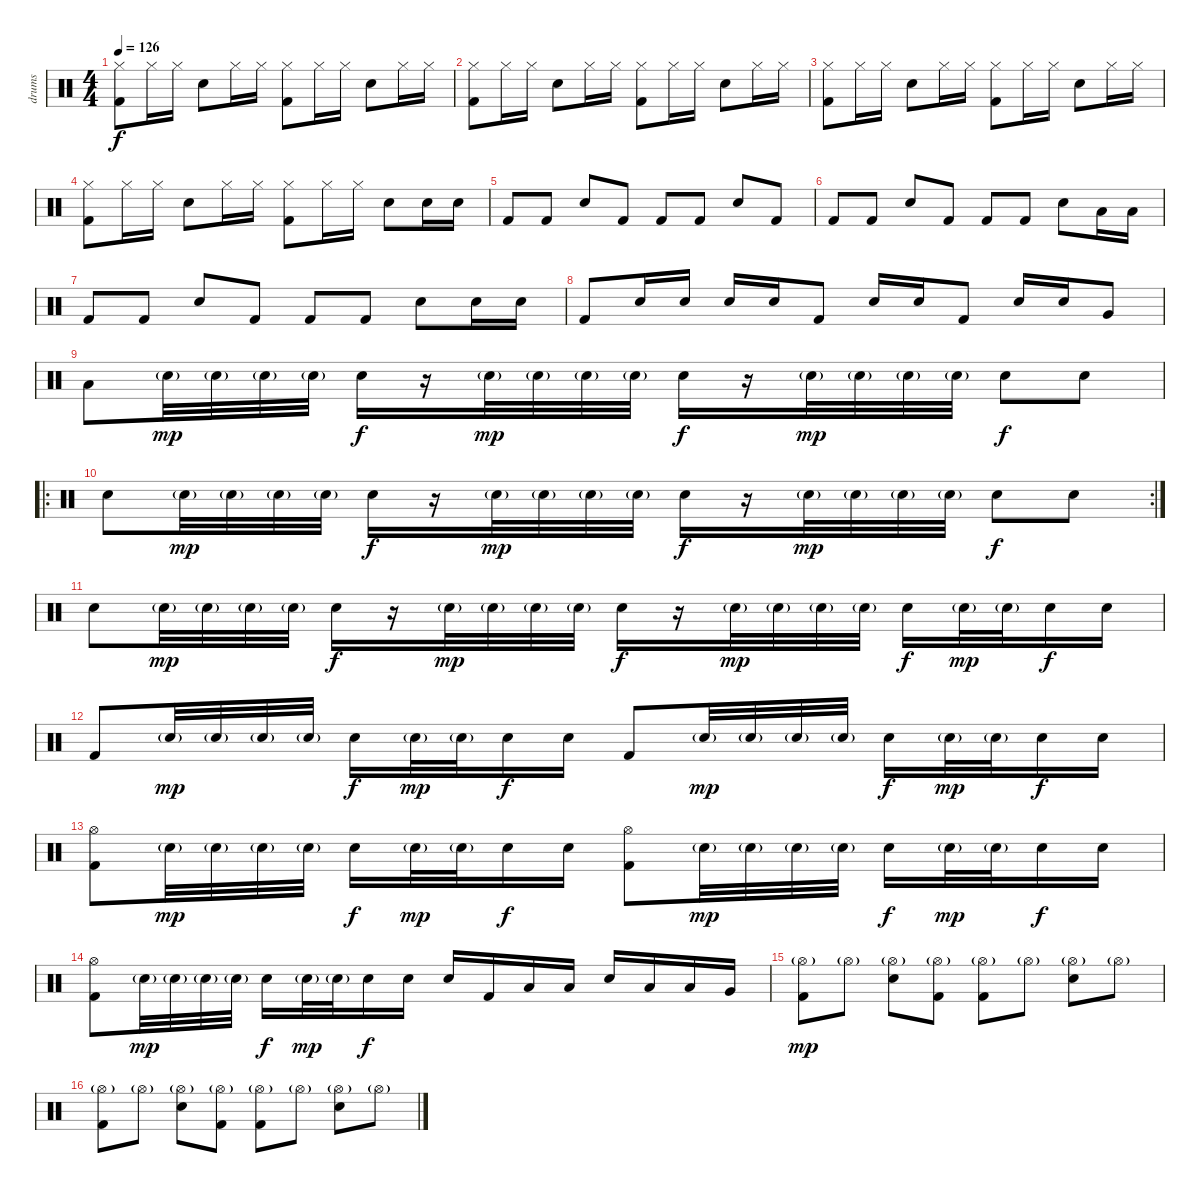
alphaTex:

\track ("drums" "drums") {instrument percussion}
\staff {score}
\articulation defaults
\ts (4 4)
\tempo 126
\clef neutral
\ks c
("Hi-Hat (closed)" "Kick (hit) 2").8{dy f} "Hi-Hat (closed)".16 "Hi-Hat (closed)".16 "Snare (hit) 2".8 "Hi-Hat (closed)".16 "Hi-Hat (closed)".16 ("Hi-Hat (closed)" "Kick (hit) 2").8 "Hi-Hat (closed)".16 "Hi-Hat (closed)".16 "Snare (hit) 2".8 "Hi-Hat (closed)".16 "Hi-Hat (closed)".16 |
("Hi-Hat (closed)" "Kick (hit) 2").8 "Hi-Hat (closed)".16 "Hi-Hat (closed)".16 "Snare (hit) 2".8 "Hi-Hat (closed)".16 "Hi-Hat (closed)".16 ("Hi-Hat (closed)" "Kick (hit) 2").8 "Hi-Hat (closed)".16 "Hi-Hat (closed)".16 "Snare (hit) 2".8 "Hi-Hat (closed)".16 "Hi-Hat (closed)".16 |
("Hi-Hat (closed)" "Kick (hit) 2").8 "Hi-Hat (closed)".16 "Hi-Hat (closed)".16 "Snare (hit) 2".8 "Hi-Hat (closed)".16 "Hi-Hat (closed)".16 ("Hi-Hat (closed)" "Kick (hit) 2").8 "Hi-Hat (closed)".16 "Hi-Hat (closed)".16 "Snare (hit) 2".8 "Hi-Hat (closed)".16 "Hi-Hat (closed)".16 |
("Hi-Hat (closed)" "Kick (hit) 2").8 "Hi-Hat (closed)".16 "Hi-Hat (closed)".16 "Snare (hit) 2".8 "Hi-Hat (closed)".16 "Hi-Hat (closed)".16 ("Hi-Hat (closed)" "Kick (hit) 2").8 "Hi-Hat (closed)".16 "Hi-Hat (closed)".16 "Snare (hit) 2".8 "Snare (hit) 2".16 "Snare (hit) 2".16 |
"Kick (hit) 2".8 "Kick (hit) 2".8 "Snare (hit) 2".8 "Kick (hit) 2".8 "Kick (hit) 2".8 "Kick (hit) 2".8 "Snare (hit) 2".8 "Kick (hit) 2".8 |
"Kick (hit) 2".8 "Kick (hit) 2".8 "Snare (hit) 2".8 "Kick (hit) 2".8 "Kick (hit) 2".8 "Kick (hit) 2".8 "Snare (hit) 2".8 "Low Tom (hit)".16 "Low Tom (hit)".16 |
"Kick (hit) 2".8 "Kick (hit) 2".8 "Snare (hit) 2".8 "Kick (hit) 2".8 "Kick (hit) 2".8 "Kick (hit) 2".8 "Snare (hit) 2".8 "Snare (hit) 2".16 "Snare (hit) 2".16 |
"Kick (hit) 2".8 "Snare (hit) 2".16 "Snare (hit) 2".16 "Snare (hit) 2".16 "Snare (hit) 2".16 "Kick (hit) 2".8 "Snare (hit) 2".16 "Snare (hit) 2".16 "Kick (hit) 2".8 "Snare (hit) 2".16 "Snare (hit) 2".16 "Very Low Tom (hit)".8 |
"Low Tom (hit)".8 "Snare (hit) 2"{g}.32{dy mp} "Snare (hit) 2"{g}.32 "Snare (hit) 2"{g}.32 "Snare (hit) 2"{g}.32 "Snare (hit) 2".16{dy f} r.16 "Snare (hit) 2"{g}.32{dy mp} "Snare (hit) 2"{g}.32 "Snare (hit) 2"{g}.32 "Snare (hit) 2"{g}.32 "Snare (hit) 2".16{dy f} r.16 "Snare (hit) 2"{g}.32{dy mp} "Snare (hit) 2"{g}.32 "Snare (hit) 2"{g}.32 "Snare (hit) 2"{g}.32 "Snare (hit) 2".8{dy f} "Snare (hit) 2".8 |
\ro
\rc 2 "Snare (hit) 2".8 "Snare (hit) 2"{g}.32{dy mp} "Snare (hit) 2"{g}.32 "Snare (hit) 2"{g}.32 "Snare (hit) 2"{g}.32 "Snare (hit) 2".16{dy f}
r.16 "Snare (hit) 2"{g}.32{dy mp} "Snare (hit) 2"{g}.32 "Snare (hit) 2"{g}.32 "Snare (hit) 2"{g}.32 "Snare (hit) 2".16{dy f} r.16 "Snare (hit) 2"{g}.32{dy mp} "Snare (hit) 2"{g}.32 "Snare (hit) 2"{g}.32 "Snare (hit) 2"{g}.32 "Snare (hit) 2".8{dy f} "Snare (hit) 2".8 |
"Snare (hit) 2".8 "Snare (hit) 2"{g}.32{dy mp} "Snare (hit) 2"{g}.32 "Snare (hit) 2"{g}.32 "Snare (hit) 2"{g}.32 "Snare (hit) 2".16{dy f} r.16 "Snare (hit) 2"{g}.32{dy mp} "Snare (hit) 2"{g}.32 "Snare (hit) 2"{g}.32 "Snare (hit) 2"{g}.32 "Snare (hit) 2".16{dy f} r.16 "Snare (hit) 2"{g}.32{dy mp} "Snare (hit) 2"{g}.32 "Snare (hit) 2"{g}.32 "Snare (hit) 2"{g}.32 "Snare (hit) 2".16{dy f} "Snare (hit) 2"{g}.32{dy mp} "Snare (hit) 2"{g}.32 "Snare (hit) 2".16{dy f} "Snare (hit) 2".16 |
"Kick (hit) 2".8 "Snare (hit) 2"{g}.32{dy mp} "Snare (hit) 2"{g}.32 "Snare (hit) 2"{g}.32 "Snare (hit) 2"{g}.32 "Snare (hit) 2".16{dy f} "Snare (hit) 2"{g}.32{dy mp} "Snare (hit) 2"{g}.32 "Snare (hit) 2".16{dy f} "Snare (hit) 2".16 "Kick (hit) 2".8 "Snare (hit) 2"{g}.32{dy mp} "Snare (hit) 2"{g}.32 "Snare (hit) 2"{g}.32 "Snare (hit) 2"{g}.32 "Snare (hit) 2".16{dy f} "Snare (hit) 2"{g}.32{dy mp} "Snare (hit) 2"{g}.32 "Snare (hit) 2".16{dy f} "Snare (hit) 2".16 |
("Hi-Hat (open)" "Kick (hit) 2").8 "Snare (hit) 2"{g}.32{dy mp} "Snare (hit) 2"{g}.32 "Snare (hit) 2"{g}.32 "Snare (hit) 2"{g}.32 "Snare (hit) 2".16{dy f} "Snare (hit) 2"{g}.32{dy mp} "Snare (hit) 2"{g}.32 "Snare (hit) 2".16{dy f} "Snare (hit) 2".16 ("Hi-Hat (open)" "Kick (hit) 2").8 "Snare (hit) 2"{g}.32{dy mp} "Snare (hit) 2"{g}.32 "Snare (hit) 2"{g}.32 "Snare (hit) 2"{g}.32 "Snare (hit) 2".16{dy f} "Snare (hit) 2"{g}.32{dy mp} "Snare (hit) 2"{g}.32 "Snare (hit) 2".16{dy f} "Snare (hit) 2".16 |
("Hi-Hat (open)" "Kick (hit) 2").8 "Snare (hit) 2"{g}.32{dy mp} "Snare (hit) 2"{g}.32 "Snare (hit) 2"{g}.32 "Snare (hit) 2"{g}.32 "Snare (hit) 2".16{dy f} "Snare (hit) 2"{g}.32{dy mp} "Snare (hit) 2"{g}.32 "Snare (hit) 2".16{dy f} "Snare (hit) 2".16 "Snare (hit) 2".16 "Kick (hit) 2".16 "Low Tom (hit)".16 "Low Tom (hit)".16 "Snare (hit) 2".16 "Low Tom (hit)".16 "Low Tom (hit)".16 "Very Low Tom (hit)".16 |
("Hi-Hat (open)"{g} "Kick (hit) 2").8{dy mp} "Hi-Hat (open)"{g}.8 ("Hi-Hat (open)"{g} "Snare (hit) 2").8 ("Hi-Hat (open)"{g} "Kick (hit) 2").8 ("Hi-Hat (open)"{g} "Kick (hit) 2").8 "Hi-Hat (open)"{g}.8 ("Hi-Hat (open)"{g} "Snare (hit) 2").8 "Hi-Hat (open)"{g}.8 |
("Hi-Hat (open)"{g} "Kick (hit) 2").8 "Hi-Hat (open)"{g}.8 ("Hi-Hat (open)"{g} "Snare (hit) 2").8 ("Hi-Hat (open)"{g} "Kick (hit) 2").8 ("Hi-Hat (open)"{g} "Kick (hit) 2").8 "Hi-Hat (open)"{g}.8 ("Hi-Hat (open)"{g} "Snare (hit) 2").8 "Hi-Hat (open)"{g}.8
